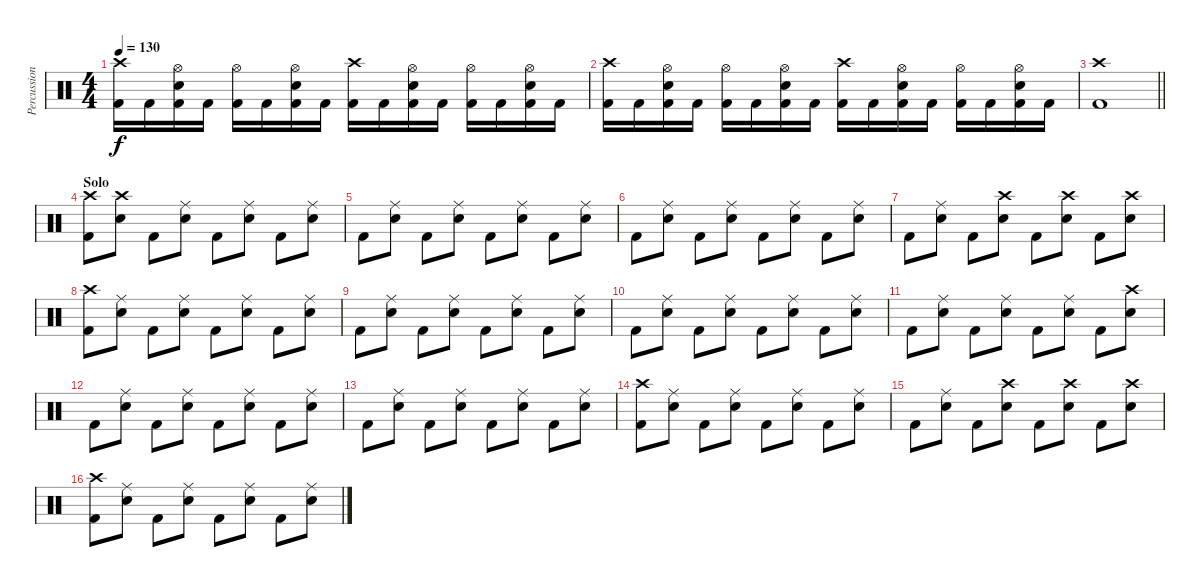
\track ("Percussion" "Percussion") {instrument percussion}
\staff {score}
\articulation defaults
\ts (4 4)
\tempo 130
\clef neutral
\ks c
("Crash high (hit)" "Kick (hit) 2").16{dy f} "Kick (hit) 2".16 ("Hi-Hat (open)" "Snare (hit) 2" "Kick (hit) 2").16 "Kick (hit) 2".16 ("Hi-Hat (open)" "Kick (hit) 2").16 "Kick (hit) 2".16 ("Hi-Hat (open)" "Snare (hit) 2" "Kick (hit) 2").16 "Kick (hit) 2".16 ("Crash high (hit)" "Kick (hit) 2").16 "Kick (hit) 2".16 ("Hi-Hat (open)" "Snare (hit) 2" "Kick (hit) 2").16 "Kick (hit) 2".16 ("Hi-Hat (open)" "Kick (hit) 2").16 "Kick (hit) 2".16 ("Hi-Hat (open)" "Snare (hit) 2" "Kick (hit) 2").16 "Kick (hit) 2".16 |
("Crash high (hit)" "Kick (hit) 2").16 "Kick (hit) 2".16 ("Hi-Hat (open)" "Snare (hit) 2" "Kick (hit) 2").16 "Kick (hit) 2".16 ("Hi-Hat (open)" "Kick (hit) 2").16 "Kick (hit) 2".16 ("Hi-Hat (open)" "Snare (hit) 2" "Kick (hit) 2").16 "Kick (hit) 2".16 ("Crash high (hit)" "Kick (hit) 2").16 "Kick (hit) 2".16 ("Hi-Hat (open)" "Snare (hit) 2" "Kick (hit) 2").16 "Kick (hit) 2".16 ("Hi-Hat (open)" "Kick (hit) 2").16 "Kick (hit) 2".16 ("Hi-Hat (open)" "Snare (hit) 2" "Kick (hit) 2").16 "Kick (hit) 2".16 |
\barLineRight lightlight
("Crash high (hit)" "Kick (hit) 2").1 |
\section ("" "Solo")
("Crash high (hit)" "Kick (hit) 2").8 ("Crash high (hit)" "Snare (hit) 2").8 "Kick (hit) 2".8 ("Ride (middle)" "Snare (hit) 2").8 "Kick (hit) 2".8 ("Ride (middle)" "Snare (hit) 2").8 "Kick (hit) 2".8 ("Ride (middle)" "Snare (hit) 2").8 |
"Kick (hit) 2".8 ("Ride (middle)" "Snare (hit) 2").8 "Kick (hit) 2".8 ("Ride (middle)" "Snare (hit) 2").8 "Kick (hit) 2".8 ("Ride (middle)" "Snare (hit) 2").8 "Kick (hit) 2".8 ("Ride (middle)" "Snare (hit) 2").8 |
"Kick (hit) 2".8 ("Ride (middle)" "Snare (hit) 2").8 "Kick (hit) 2".8 ("Ride (middle)" "Snare (hit) 2").8 "Kick (hit) 2".8 ("Ride (middle)" "Snare (hit) 2").8 "Kick (hit) 2".8 ("Ride (middle)" "Snare (hit) 2").8 |
"Kick (hit) 2".8 ("Ride (middle)" "Snare (hit) 2").8 "Kick (hit) 2".8 ("Crash high (hit)" "Snare (hit) 2").8 "Kick (hit) 2".8 ("Crash high (hit)" "Snare (hit) 2").8 "Kick (hit) 2".8 ("Crash high (hit)" "Snare (hit) 2").8 |
("Crash high (hit)" "Kick (hit) 2").8 ("Ride (middle)" "Snare (hit) 2").8 "Kick (hit) 2".8 ("Ride (middle)" "Snare (hit) 2").8 "Kick (hit) 2".8 ("Ride (middle)" "Snare (hit) 2").8 "Kick (hit) 2".8 ("Ride (middle)" "Snare (hit) 2").8 |
"Kick (hit) 2".8 ("Ride (middle)" "Snare (hit) 2").8 "Kick (hit) 2".8 ("Ride (middle)" "Snare (hit) 2").8 "Kick (hit) 2".8 ("Ride (middle)" "Snare (hit) 2").8 "Kick (hit) 2".8 ("Ride (middle)" "Snare (hit) 2").8 |
"Kick (hit) 2".8 ("Ride (middle)" "Snare (hit) 2").8 "Kick (hit) 2".8 ("Ride (middle)" "Snare (hit) 2").8 "Kick (hit) 2".8 ("Ride (middle)" "Snare (hit) 2").8 "Kick (hit) 2".8 ("Ride (middle)" "Snare (hit) 2").8 |
"Kick (hit) 2".8 ("Ride (middle)" "Snare (hit) 2").8 "Kick (hit) 2".8 ("Ride (middle)" "Snare (hit) 2").8 "Kick (hit) 2".8 ("Ride (middle)" "Snare (hit) 2").8 "Kick (hit) 2".8 ("Crash high (hit)" "Snare (hit) 2").8 |
"Kick (hit) 2".8 ("Ride (middle)" "Snare (hit) 2").8 "Kick (hit) 2".8 ("Ride (middle)" "Snare (hit) 2").8 "Kick (hit) 2".8 ("Ride (middle)" "Snare (hit) 2").8 "Kick (hit) 2".8 ("Ride (middle)" "Snare (hit) 2").8 |
"Kick (hit) 2".8 ("Ride (middle)" "Snare (hit) 2").8 "Kick (hit) 2".8 ("Ride (middle)" "Snare (hit) 2").8 "Kick (hit) 2".8 ("Ride (middle)" "Snare (hit) 2").8 "Kick (hit) 2".8 ("Ride (middle)" "Snare (hit) 2").8 |
("Crash high (hit)" "Kick (hit) 2").8 ("Ride (middle)" "Snare (hit) 2").8 "Kick (hit) 2".8 ("Ride (middle)" "Snare (hit) 2").8 "Kick (hit) 2".8 ("Ride (middle)" "Snare (hit) 2").8 "Kick (hit) 2".8 ("Ride (middle)" "Snare (hit) 2").8 |
"Kick (hit) 2".8 ("Ride (middle)" "Snare (hit) 2").8 "Kick (hit) 2".8 ("Crash high (hit)" "Snare (hit) 2").8 "Kick (hit) 2".8 ("Crash high (hit)" "Snare (hit) 2").8 "Kick (hit) 2".8 ("Crash high (hit)" "Snare (hit) 2").8 |
("Crash high (hit)" "Kick (hit) 2").8 ("Ride (middle)" "Snare (hit) 2").8 "Kick (hit) 2".8 ("Ride (middle)" "Snare (hit) 2").8 "Kick (hit) 2".8 ("Ride (middle)" "Snare (hit) 2").8 "Kick (hit) 2".8 ("Ride (middle)" "Snare (hit) 2").8
